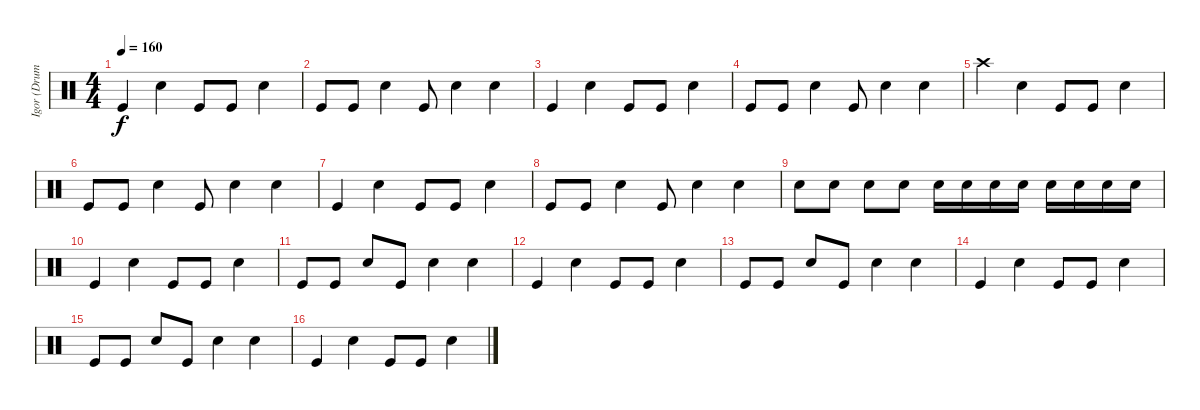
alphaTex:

\track ("Igor (Drum- Bass & Snare)" "Igor (Drum") {instrument percussion}
\staff {score}
\articulation defaults
\ts (4 4)
\tempo 160
\clef neutral
\ks c "Kick (hit)".4{dy f} "Snare (hit) 2".4 "Kick (hit)".8 "Kick (hit)".8 "Snare (hit) 2".4
|
"Kick (hit)".8 "Kick (hit)".8 "Snare (hit) 2".4 "Kick (hit)".8 "Snare (hit) 2".4 "Snare (hit) 2".4 |
"Kick (hit)".4 "Snare (hit) 2".4 "Kick (hit)".8 "Kick (hit)".8 "Snare (hit) 2".4 |
"Kick (hit)".8 "Kick (hit)".8 "Snare (hit) 2".4 "Kick (hit)".8 "Snare (hit) 2".4 "Snare (hit) 2".4 |
"Crash high (hit)".4 "Snare (hit) 2".4 "Kick (hit)".8 "Kick (hit)".8 "Snare (hit) 2".4 |
"Kick (hit)".8 "Kick (hit)".8 "Snare (hit) 2".4 "Kick (hit)".8 "Snare (hit) 2".4 "Snare (hit) 2".4 |
"Kick (hit)".4 "Snare (hit) 2".4 "Kick (hit)".8 "Kick (hit)".8 "Snare (hit) 2".4 |
"Kick (hit)".8 "Kick (hit)".8 "Snare (hit) 2".4 "Kick (hit)".8 "Snare (hit) 2".4 "Snare (hit) 2".4 |
"Snare (hit) 2".8 "Snare (hit) 2".8 "Snare (hit) 2".8 "Snare (hit) 2".8 "Snare (hit) 2".16 "Snare (hit) 2".16 "Snare (hit) 2".16 "Snare (hit) 2".16 "Snare (hit) 2".16 "Snare (hit) 2".16 "Snare (hit) 2".16 "Snare (hit) 2".16 |
"Kick (hit)".4 "Snare (hit) 2".4 "Kick (hit)".8 "Kick (hit)".8 "Snare (hit) 2".4 |
"Kick (hit)".8 "Kick (hit)".8 "Snare (hit) 2".8 "Kick (hit)".8 "Snare (hit) 2".4 "Snare (hit) 2".4 |
"Kick (hit)".4 "Snare (hit) 2".4 "Kick (hit)".8 "Kick (hit)".8 "Snare (hit) 2".4 |
"Kick (hit)".8 "Kick (hit)".8 "Snare (hit) 2".8 "Kick (hit)".8 "Snare (hit) 2".4 "Snare (hit) 2".4 |
"Kick (hit)".4 "Snare (hit) 2".4 "Kick (hit)".8 "Kick (hit)".8 "Snare (hit) 2".4 |
"Kick (hit)".8 "Kick (hit)".8 "Snare (hit) 2".8 "Kick (hit)".8 "Snare (hit) 2".4 "Snare (hit) 2".4 |
"Kick (hit)".4 "Snare (hit) 2".4 "Kick (hit)".8 "Kick (hit)".8 "Snare (hit) 2".4
